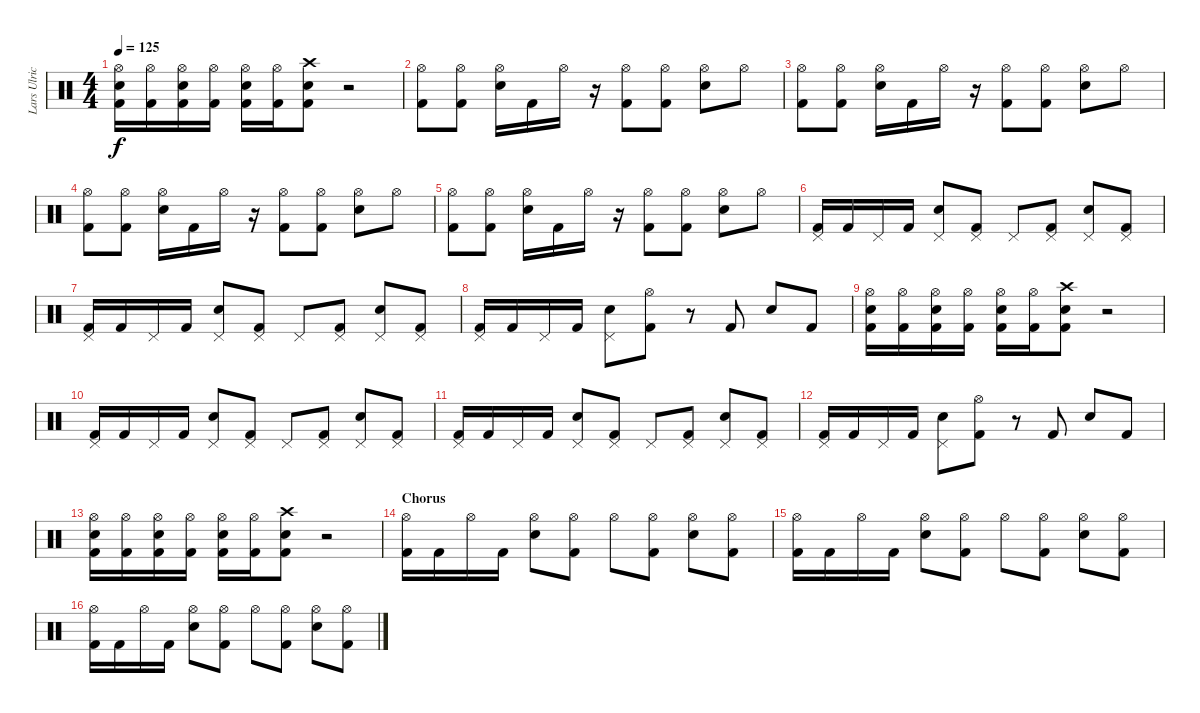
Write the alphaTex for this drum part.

\track ("Lars Ulrich" "Lars Ulric") {instrument percussion}
\staff {score}
\articulation defaults
\ts (4 4)
\tempo 125
\clef neutral
\ks c
("Hi-Hat (open)" "Electric Snare (hit)" "Kick (hit) 2").16{dy f} ("Hi-Hat (open)" "Kick (hit) 2").16 ("Hi-Hat (open)" "Electric Snare (hit)" "Kick (hit) 2").16 ("Hi-Hat (open)" "Kick (hit) 2").16 ("Hi-Hat (open)" "Electric Snare (hit)" "Kick (hit) 2").16 ("Hi-Hat (open)" "Kick (hit) 2").16 ("Crash high (hit)" "Electric Snare (hit)" "Kick (hit) 2").8 r.2 |
("Hi-Hat (open)" "Kick (hit) 2").8 ("Hi-Hat (open)" "Kick (hit) 2").8 ("Hi-Hat (open)" "Electric Snare (hit)").16 "Kick (hit) 2".16 "Hi-Hat (open)".16 r.16 ("Hi-Hat (open)" "Kick (hit) 2").8 ("Hi-Hat (open)" "Kick (hit) 2").8 ("Hi-Hat (open)" "Electric Snare (hit)").8 "Hi-Hat (open)".8 |
("Hi-Hat (open)" "Kick (hit) 2").8 ("Hi-Hat (open)" "Kick (hit) 2").8 ("Hi-Hat (open)" "Electric Snare (hit)").16 "Kick (hit) 2".16 "Hi-Hat (open)".16 r.16 ("Hi-Hat (open)" "Kick (hit) 2").8 ("Hi-Hat (open)" "Kick (hit) 2").8 ("Hi-Hat (open)" "Electric Snare (hit)").8 "Hi-Hat (open)".8 |
("Hi-Hat (open)" "Kick (hit) 2").8 ("Hi-Hat (open)" "Kick (hit) 2").8 ("Hi-Hat (open)" "Electric Snare (hit)").16 "Kick (hit) 2".16 "Hi-Hat (open)".16 r.16 ("Hi-Hat (open)" "Kick (hit) 2").8 ("Hi-Hat (open)" "Kick (hit) 2").8 ("Hi-Hat (open)" "Electric Snare (hit)").8 "Hi-Hat (open)".8 |
("Hi-Hat (open)" "Kick (hit) 2").8 ("Hi-Hat (open)" "Kick (hit) 2").8 ("Hi-Hat (open)" "Electric Snare (hit)").16 "Kick (hit) 2".16 "Hi-Hat (open)".16 r.16 ("Hi-Hat (open)" "Kick (hit) 2").8 ("Hi-Hat (open)" "Kick (hit) 2").8 ("Hi-Hat (open)" "Electric Snare (hit)").8 "Hi-Hat (open)".8 |
("Pedal Hi-Hat (hit)" "Kick (hit) 2").16 "Kick (hit) 2".16 "Pedal Hi-Hat (hit)".16 "Kick (hit) 2".16 ("Pedal Hi-Hat (hit)" "Electric Snare (hit)").8 ("Pedal Hi-Hat (hit)" "Kick (hit) 2").8 "Pedal Hi-Hat (hit)".8 ("Pedal Hi-Hat (hit)" "Kick (hit) 2").8 ("Pedal Hi-Hat (hit)" "Electric Snare (hit)").8 ("Pedal Hi-Hat (hit)" "Kick (hit) 2").8 |
("Pedal Hi-Hat (hit)" "Kick (hit) 2").16 "Kick (hit) 2".16 "Pedal Hi-Hat (hit)".16 "Kick (hit) 2".16 ("Pedal Hi-Hat (hit)" "Electric Snare (hit)").8 ("Pedal Hi-Hat (hit)" "Kick (hit) 2").8 "Pedal Hi-Hat (hit)".8 ("Pedal Hi-Hat (hit)" "Kick (hit) 2").8 ("Pedal Hi-Hat (hit)" "Electric Snare (hit)").8 ("Pedal Hi-Hat (hit)" "Kick (hit) 2").8 |
("Pedal Hi-Hat (hit)" "Kick (hit) 2").16 "Kick (hit) 2".16 "Pedal Hi-Hat (hit)".16 "Kick (hit) 2".16 ("Pedal Hi-Hat (hit)" "Electric Snare (hit)").8 ("Hi-Hat (open)" "Kick (hit) 2").8 r.8 "Kick (hit) 2".8 "Electric Snare (hit)".8 "Kick (hit) 2".8 |
("Hi-Hat (open)" "Electric Snare (hit)" "Kick (hit) 2").16 ("Hi-Hat (open)" "Kick (hit) 2").16 ("Hi-Hat (open)" "Electric Snare (hit)" "Kick (hit) 2").16 ("Hi-Hat (open)" "Kick (hit) 2").16 ("Hi-Hat (open)" "Electric Snare (hit)" "Kick (hit) 2").16 ("Hi-Hat (open)" "Kick (hit) 2").16 ("Crash high (hit)" "Electric Snare (hit)" "Kick (hit) 2").8 r.2 |
("Pedal Hi-Hat (hit)" "Kick (hit) 2").16 "Kick (hit) 2".16 "Pedal Hi-Hat (hit)".16 "Kick (hit) 2".16 ("Pedal Hi-Hat (hit)" "Electric Snare (hit)").8 ("Pedal Hi-Hat (hit)" "Kick (hit) 2").8 "Pedal Hi-Hat (hit)".8 ("Pedal Hi-Hat (hit)" "Kick (hit) 2").8 ("Pedal Hi-Hat (hit)" "Electric Snare (hit)").8 ("Pedal Hi-Hat (hit)" "Kick (hit) 2").8 |
("Pedal Hi-Hat (hit)" "Kick (hit) 2").16 "Kick (hit) 2".16 "Pedal Hi-Hat (hit)".16 "Kick (hit) 2".16 ("Pedal Hi-Hat (hit)" "Electric Snare (hit)").8 ("Pedal Hi-Hat (hit)" "Kick (hit) 2").8 "Pedal Hi-Hat (hit)".8 ("Pedal Hi-Hat (hit)" "Kick (hit) 2").8 ("Pedal Hi-Hat (hit)" "Electric Snare (hit)").8 ("Pedal Hi-Hat (hit)" "Kick (hit) 2").8 |
("Pedal Hi-Hat (hit)" "Kick (hit) 2").16 "Kick (hit) 2".16 "Pedal Hi-Hat (hit)".16 "Kick (hit) 2".16 ("Pedal Hi-Hat (hit)" "Electric Snare (hit)").8 ("Hi-Hat (open)" "Kick (hit) 2").8 r.8 "Kick (hit) 2".8 "Electric Snare (hit)".8 "Kick (hit) 2".8 |
("Hi-Hat (open)" "Electric Snare (hit)" "Kick (hit) 2").16 ("Hi-Hat (open)" "Kick (hit) 2").16 ("Hi-Hat (open)" "Electric Snare (hit)" "Kick (hit) 2").16 ("Hi-Hat (open)" "Kick (hit) 2").16 ("Hi-Hat (open)" "Electric Snare (hit)" "Kick (hit) 2").16 ("Hi-Hat (open)" "Kick (hit) 2").16 ("Crash high (hit)" "Electric Snare (hit)" "Kick (hit) 2").8 r.2 |
\section ("" "Chorus")
("Hi-Hat (open)" "Kick (hit) 2").16 "Kick (hit) 2".16 "Hi-Hat (open)".16 "Kick (hit) 2".16 ("Hi-Hat (open)" "Electric Snare (hit)").8 ("Hi-Hat (open)" "Kick (hit) 2").8 "Hi-Hat (open)".8 ("Hi-Hat (open)" "Kick (hit) 2").8 ("Hi-Hat (open)" "Electric Snare (hit)").8 ("Hi-Hat (open)" "Kick (hit) 2").8 |
("Hi-Hat (open)" "Kick (hit) 2").16 "Kick (hit) 2".16 "Hi-Hat (open)".16 "Kick (hit) 2".16 ("Hi-Hat (open)" "Electric Snare (hit)").8 ("Hi-Hat (open)" "Kick (hit) 2").8 "Hi-Hat (open)".8 ("Hi-Hat (open)" "Kick (hit) 2").8 ("Hi-Hat (open)" "Electric Snare (hit)").8 ("Hi-Hat (open)" "Kick (hit) 2").8 |
("Hi-Hat (open)" "Kick (hit) 2").16 "Kick (hit) 2".16 "Hi-Hat (open)".16 "Kick (hit) 2".16 ("Hi-Hat (open)" "Electric Snare (hit)").8 ("Hi-Hat (open)" "Kick (hit) 2").8 "Hi-Hat (open)".8 ("Hi-Hat (open)" "Kick (hit) 2").8 ("Hi-Hat (open)" "Electric Snare (hit)").8 ("Hi-Hat (open)" "Kick (hit) 2").8
